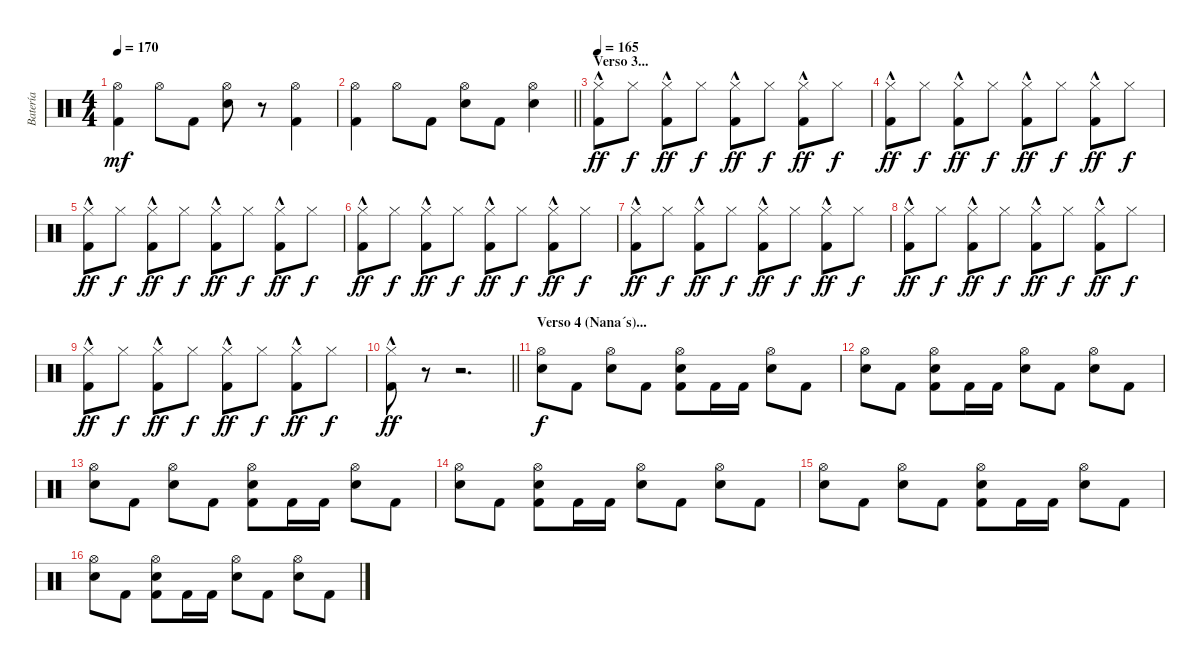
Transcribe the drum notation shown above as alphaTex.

\track ("Batería" "Batería") {instrument percussion}
\staff {score}
\articulation defaults
\ts (4 4)
\tempo 170
\clef neutral
\ks c
("Hi-Hat (open)" "Kick (hit) 2").4{dy mf} "Hi-Hat (open)".8 "Kick (hit) 2".8 ("Hi-Hat (open)" "Snare (hit) 2").8 r.8 ("Hi-Hat (open)" "Kick (hit) 2").4 |
\barLineRight lightlight
("Hi-Hat (open)" "Kick (hit) 2").4 "Hi-Hat (open)".8 "Kick (hit) 2".8 ("Hi-Hat (open)" "Snare (hit) 2").8 "Kick (hit) 2".8 ("Hi-Hat (open)" "Snare (hit) 2").4 |
\section ("" "Verso 3...")
\tempo 165
("Hi-Hat (closed)"{hac} "Kick (hit) 2"{hac}).8{dy ff} "Hi-Hat (closed)".8{dy f} ("Hi-Hat (closed)"{hac} "Kick (hit) 2"{hac}).8{dy ff} "Hi-Hat (closed)".8{dy f} ("Hi-Hat (closed)"{hac} "Kick (hit) 2"{hac}).8{dy ff} "Hi-Hat (closed)".8{dy f} ("Hi-Hat (closed)"{hac} "Kick (hit) 2"{hac}).8{dy ff} "Hi-Hat (closed)".8{dy f} |
("Hi-Hat (closed)"{hac} "Kick (hit) 2"{hac}).8{dy ff} "Hi-Hat (closed)".8{dy f} ("Hi-Hat (closed)"{hac} "Kick (hit) 2"{hac}).8{dy ff} "Hi-Hat (closed)".8{dy f} ("Hi-Hat (closed)"{hac} "Kick (hit) 2"{hac}).8{dy ff} "Hi-Hat (closed)".8{dy f} ("Hi-Hat (closed)"{hac} "Kick (hit) 2"{hac}).8{dy ff} "Hi-Hat (closed)".8{dy f} |
("Hi-Hat (closed)"{hac} "Kick (hit) 2"{hac}).8{dy ff} "Hi-Hat (closed)".8{dy f} ("Hi-Hat (closed)"{hac} "Kick (hit) 2"{hac}).8{dy ff} "Hi-Hat (closed)".8{dy f} ("Hi-Hat (closed)"{hac} "Kick (hit) 2"{hac}).8{dy ff} "Hi-Hat (closed)".8{dy f} ("Hi-Hat (closed)"{hac} "Kick (hit) 2"{hac}).8{dy ff} "Hi-Hat (closed)".8{dy f} |
("Hi-Hat (closed)"{hac} "Kick (hit) 2"{hac}).8{dy ff} "Hi-Hat (closed)".8{dy f} ("Hi-Hat (closed)"{hac} "Kick (hit) 2"{hac}).8{dy ff} "Hi-Hat (closed)".8{dy f} ("Hi-Hat (closed)"{hac} "Kick (hit) 2"{hac}).8{dy ff} "Hi-Hat (closed)".8{dy f} ("Hi-Hat (closed)"{hac} "Kick (hit) 2"{hac}).8{dy ff} "Hi-Hat (closed)".8{dy f} |
("Hi-Hat (closed)"{hac} "Kick (hit) 2"{hac}).8{dy ff} "Hi-Hat (closed)".8{dy f} ("Hi-Hat (closed)"{hac} "Kick (hit) 2"{hac}).8{dy ff} "Hi-Hat (closed)".8{dy f} ("Hi-Hat (closed)"{hac} "Kick (hit) 2"{hac}).8{dy ff} "Hi-Hat (closed)".8{dy f} ("Hi-Hat (closed)"{hac} "Kick (hit) 2"{hac}).8{dy ff} "Hi-Hat (closed)".8{dy f} |
("Hi-Hat (closed)"{hac} "Kick (hit) 2"{hac}).8{dy ff} "Hi-Hat (closed)".8{dy f} ("Hi-Hat (closed)"{hac} "Kick (hit) 2"{hac}).8{dy ff} "Hi-Hat (closed)".8{dy f} ("Hi-Hat (closed)"{hac} "Kick (hit) 2"{hac}).8{dy ff} "Hi-Hat (closed)".8{dy f} ("Hi-Hat (closed)"{hac} "Kick (hit) 2"{hac}).8{dy ff} "Hi-Hat (closed)".8{dy f} |
("Hi-Hat (closed)"{hac} "Kick (hit) 2"{hac}).8{dy ff} "Hi-Hat (closed)".8{dy f} ("Hi-Hat (closed)"{hac} "Kick (hit) 2"{hac}).8{dy ff} "Hi-Hat (closed)".8{dy f} ("Hi-Hat (closed)"{hac} "Kick (hit) 2"{hac}).8{dy ff} "Hi-Hat (closed)".8{dy f} ("Hi-Hat (closed)"{hac} "Kick (hit) 2"{hac}).8{dy ff} "Hi-Hat (closed)".8{dy f} |
\barLineRight lightlight
("Hi-Hat (closed)"{hac} "Kick (hit) 2"{hac}).8{dy ff} r.8 r.2{d} |
\section ("" "Verso 4 (Nana´s)...")
("Hi-Hat (open)" "Snare (hit) 2").8{dy f} "Kick (hit) 2".8 ("Hi-Hat (open)" "Snare (hit) 2").8 "Kick (hit) 2".8 ("Hi-Hat (open)" "Snare (hit) 2" "Kick (hit) 2").8 "Kick (hit) 2".16 "Kick (hit) 2".16 ("Hi-Hat (open)" "Snare (hit) 2").8 "Kick (hit) 2".8 |
("Hi-Hat (open)" "Snare (hit) 2").8 "Kick (hit) 2".8 ("Hi-Hat (open)" "Snare (hit) 2" "Kick (hit) 2").8 "Kick (hit) 2".16 "Kick (hit) 2".16 ("Hi-Hat (open)" "Snare (hit) 2").8 "Kick (hit) 2".8 ("Hi-Hat (open)" "Snare (hit) 2").8 "Kick (hit) 2".8 |
("Hi-Hat (open)" "Snare (hit) 2").8 "Kick (hit) 2".8 ("Hi-Hat (open)" "Snare (hit) 2").8 "Kick (hit) 2".8 ("Hi-Hat (open)" "Snare (hit) 2" "Kick (hit) 2").8 "Kick (hit) 2".16 "Kick (hit) 2".16 ("Hi-Hat (open)" "Snare (hit) 2").8 "Kick (hit) 2".8 |
("Hi-Hat (open)" "Snare (hit) 2").8 "Kick (hit) 2".8 ("Hi-Hat (open)" "Snare (hit) 2" "Kick (hit) 2").8 "Kick (hit) 2".16 "Kick (hit) 2".16 ("Hi-Hat (open)" "Snare (hit) 2").8 "Kick (hit) 2".8 ("Hi-Hat (open)" "Snare (hit) 2").8 "Kick (hit) 2".8 |
("Hi-Hat (open)" "Snare (hit) 2").8 "Kick (hit) 2".8 ("Hi-Hat (open)" "Snare (hit) 2").8 "Kick (hit) 2".8 ("Hi-Hat (open)" "Snare (hit) 2" "Kick (hit) 2").8 "Kick (hit) 2".16 "Kick (hit) 2".16 ("Hi-Hat (open)" "Snare (hit) 2").8 "Kick (hit) 2".8 |
("Hi-Hat (open)" "Snare (hit) 2").8 "Kick (hit) 2".8 ("Hi-Hat (open)" "Snare (hit) 2" "Kick (hit) 2").8 "Kick (hit) 2".16 "Kick (hit) 2".16 ("Hi-Hat (open)" "Snare (hit) 2").8 "Kick (hit) 2".8 ("Hi-Hat (open)" "Snare (hit) 2").8 "Kick (hit) 2".8
